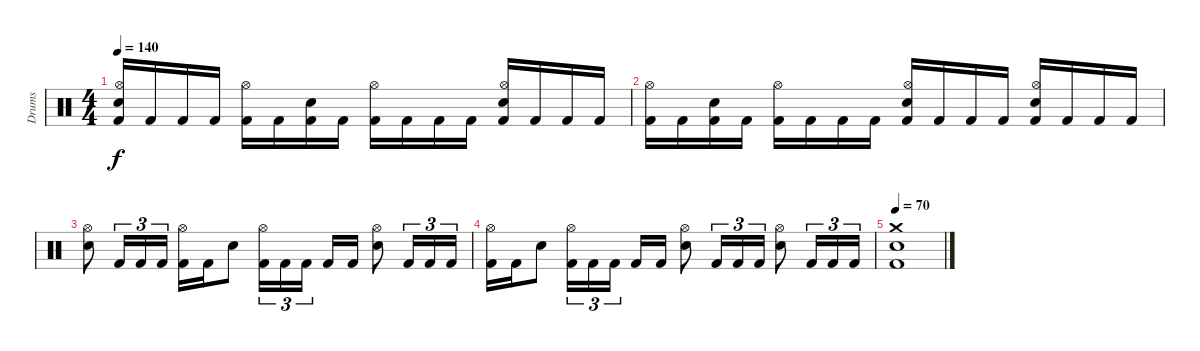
\track ("Drums" "Drums") {instrument percussion}
\staff {score}
\articulation defaults
\ts (4 4)
\tempo 140
\clef neutral
\ks c
("Electric Snare (hit)" "Hi-Hat (open)" "Kick (hit) 2").16{dy f} "Kick (hit) 2".16 "Kick (hit) 2".16 "Kick (hit) 2".16 ("Hi-Hat (open)" "Kick (hit) 2").16 "Kick (hit) 2".16 ("Electric Snare (hit)" "Kick (hit) 2").16 "Kick (hit) 2".16 ("Hi-Hat (open)" "Kick (hit) 2").16 "Kick (hit) 2".16 "Kick (hit) 2".16 "Kick (hit) 2".16 ("Electric Snare (hit)" "Hi-Hat (open)" "Kick (hit) 2").16 "Kick (hit) 2".16 "Kick (hit) 2".16 "Kick (hit) 2".16 |
("Hi-Hat (open)" "Kick (hit) 2").16 "Kick (hit) 2".16 ("Electric Snare (hit)" "Kick (hit) 2").16 "Kick (hit) 2".16 ("Hi-Hat (open)" "Kick (hit) 2").16 "Kick (hit) 2".16 "Kick (hit) 2".16 "Kick (hit) 2".16 ("Electric Snare (hit)" "Hi-Hat (open)" "Kick (hit) 2").16 "Kick (hit) 2".16 "Kick (hit) 2".16 "Kick (hit) 2".16 ("Electric Snare (hit)" "Hi-Hat (open)" "Kick (hit) 2").16 "Kick (hit) 2".16 "Kick (hit) 2".16 "Kick (hit) 2".16 |
("Electric Snare (hit)" "Hi-Hat (open)").8 "Kick (hit) 2".16{tu (3 2)} "Kick (hit) 2".16{tu (3 2)} "Kick (hit) 2".16{tu (3 2)} ("Hi-Hat (open)" "Kick (hit) 2").16 "Kick (hit) 2".16 "Electric Snare (hit)".8 ("Hi-Hat (open)" "Kick (hit) 2").16{tu (3 2)} "Kick (hit) 2".16{tu (3 2)} "Kick (hit) 2".16{tu (3 2)} "Kick (hit) 2".16 "Kick (hit) 2".16 ("Electric Snare (hit)" "Hi-Hat (open)").8 "Kick (hit) 2".16{tu (3 2)} "Kick (hit) 2".16{tu (3 2)} "Kick (hit) 2".16{tu (3 2)} |
("Hi-Hat (open)" "Kick (hit) 2").16 "Kick (hit) 2".16 "Electric Snare (hit)".8 ("Hi-Hat (open)" "Kick (hit) 2").16{tu (3 2)} "Kick (hit) 2".16{tu (3 2)} "Kick (hit) 2".16{tu (3 2)} "Kick (hit) 2".16 "Kick (hit) 2".16 ("Electric Snare (hit)" "Hi-Hat (open)").8 "Kick (hit) 2".16{tu (3 2)} "Kick (hit) 2".16{tu (3 2)} "Kick (hit) 2".16{tu (3 2)} ("Electric Snare (hit)" "Hi-Hat (open)").8 "Kick (hit) 2".16{tu (3 2)} "Kick (hit) 2".16{tu (3 2)} "Kick (hit) 2".16{tu (3 2)} |
\tempo 70
("Crash medium (hit)" "Electric Snare (hit)" "Kick (hit) 2").1
